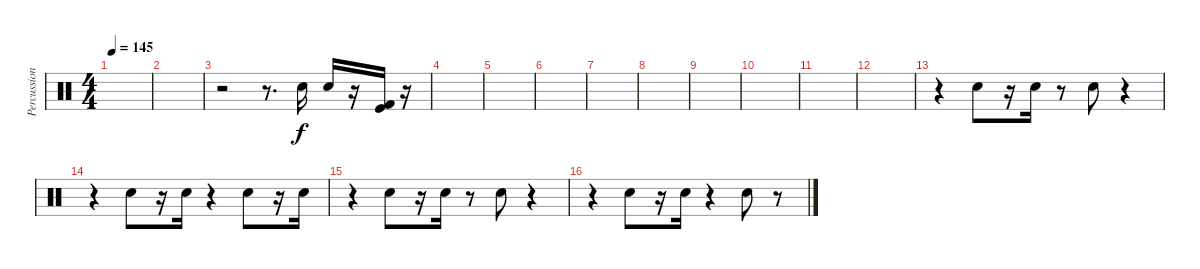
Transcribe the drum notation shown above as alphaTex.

\track ("Percussion" "Percussion") {instrument percussion}
\staff {score}
\articulation defaults
\ts (4 4)
\tempo 145
\clef neutral
\ks c
|
|
r.2 r.8{d} "Snare (hit) 2".16{dy f} "Snare (hit) 2".16 r.16 ("Kick (hit)" "Kick (hit) 2").16 r.16 |
|
|
|
|
|
|
|
|
|
r.4 "Snare (hit) 2".8 r.16 "Snare (hit) 2".16 r.8 "Snare (hit) 2".8 r.4 |
r.4 "Snare (hit) 2".8 r.16 "Snare (hit) 2".16 r.4 "Snare (hit) 2".8 r.16 "Snare (hit) 2".16 |
r.4 "Snare (hit) 2".8 r.16 "Snare (hit) 2".16 r.8 "Snare (hit) 2".8 r.4 |
r.4 "Snare (hit) 2".8 r.16 "Snare (hit) 2".16 r.4 "Snare (hit) 2".8 r.8
